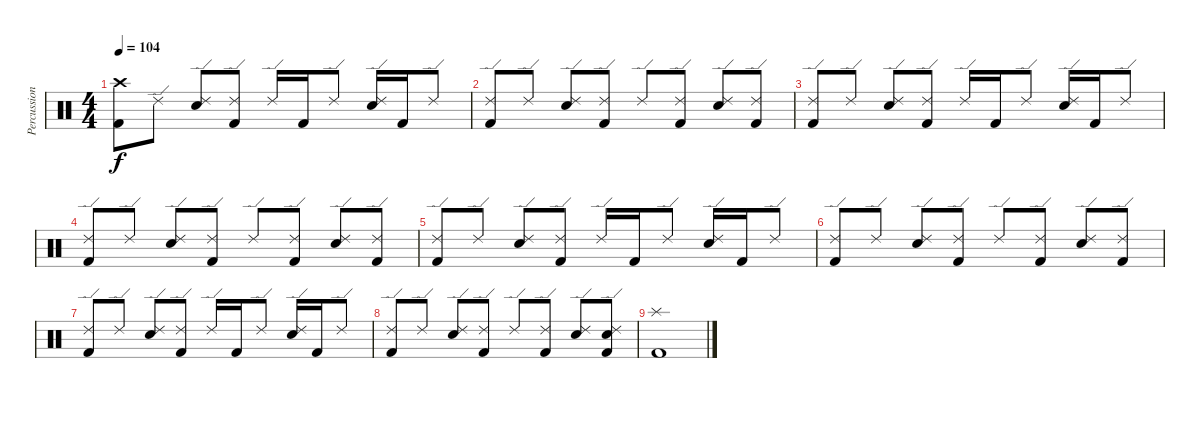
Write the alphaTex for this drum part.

\track ("Percussion" "Percussion") {instrument percussion}
\staff {score}
\articulation defaults
\ts (4 4)
\tempo 104
\clef neutral
\ks c
("Crash high (hit)" "Kick (hit) 2").8{dy f} "Ride (edge) 2".8 ("Ride (edge) 2" "Snare (hit) 2").8 ("Ride (edge) 2" "Kick (hit) 2").8 "Ride (edge) 2".16 "Kick (hit) 2".16 "Ride (edge) 2".8 ("Ride (edge) 2" "Snare (hit) 2").16 "Kick (hit) 2".16 "Ride (edge) 2".8 |
("Ride (edge) 2" "Kick (hit) 2").8 "Ride (edge) 2".8 ("Ride (edge) 2" "Snare (hit) 2").8 ("Ride (edge) 2" "Kick (hit) 2").8 "Ride (edge) 2".8 ("Ride (edge) 2" "Kick (hit) 2").8 ("Ride (edge) 2" "Snare (hit) 2").8 ("Ride (edge) 2" "Kick (hit) 2").8 |
("Ride (edge) 2" "Kick (hit) 2").8 "Ride (edge) 2".8 ("Ride (edge) 2" "Snare (hit) 2").8 ("Ride (edge) 2" "Kick (hit) 2").8 "Ride (edge) 2".16 "Kick (hit) 2".16 "Ride (edge) 2".8 ("Ride (edge) 2" "Snare (hit) 2").16 "Kick (hit) 2".16 "Ride (edge) 2".8 |
("Ride (edge) 2" "Kick (hit) 2").8 "Ride (edge) 2".8 ("Ride (edge) 2" "Snare (hit) 2").8 ("Ride (edge) 2" "Kick (hit) 2").8 "Ride (edge) 2".8 ("Ride (edge) 2" "Kick (hit) 2").8 ("Ride (edge) 2" "Snare (hit) 2").8 ("Ride (edge) 2" "Kick (hit) 2").8 |
("Ride (edge) 2" "Kick (hit) 2").8 "Ride (edge) 2".8 ("Ride (edge) 2" "Snare (hit) 2").8 ("Ride (edge) 2" "Kick (hit) 2").8 "Ride (edge) 2".16 "Kick (hit) 2".16 "Ride (edge) 2".8 ("Ride (edge) 2" "Snare (hit) 2").16 "Kick (hit) 2".16 "Ride (edge) 2".8 |
("Ride (edge) 2" "Kick (hit) 2").8 "Ride (edge) 2".8 ("Ride (edge) 2" "Snare (hit) 2").8 ("Ride (edge) 2" "Kick (hit) 2").8 "Ride (edge) 2".8 ("Ride (edge) 2" "Kick (hit) 2").8 ("Ride (edge) 2" "Snare (hit) 2").8 ("Ride (edge) 2" "Kick (hit) 2").8 |
("Ride (edge) 2" "Kick (hit) 2").8 "Ride (edge) 2".8 ("Ride (edge) 2" "Snare (hit) 2").8 ("Ride (edge) 2" "Kick (hit) 2").8 "Ride (edge) 2".16 "Kick (hit) 2".16 "Ride (edge) 2".8 ("Ride (edge) 2" "Snare (hit) 2").16 "Kick (hit) 2".16 "Ride (edge) 2".8 |
("Ride (edge) 2" "Kick (hit) 2").8 "Ride (edge) 2".8 ("Ride (edge) 2" "Snare (hit) 2").8 ("Ride (edge) 2" "Kick (hit) 2").8 "Ride (edge) 2".8 ("Ride (edge) 2" "Kick (hit) 2").8 ("Ride (edge) 2" "Snare (hit) 2").8 ("Ride (edge) 2" "Snare (hit) 2" "Kick (hit) 2").8 |
("Splash (hit)" "Kick (hit) 2").1
